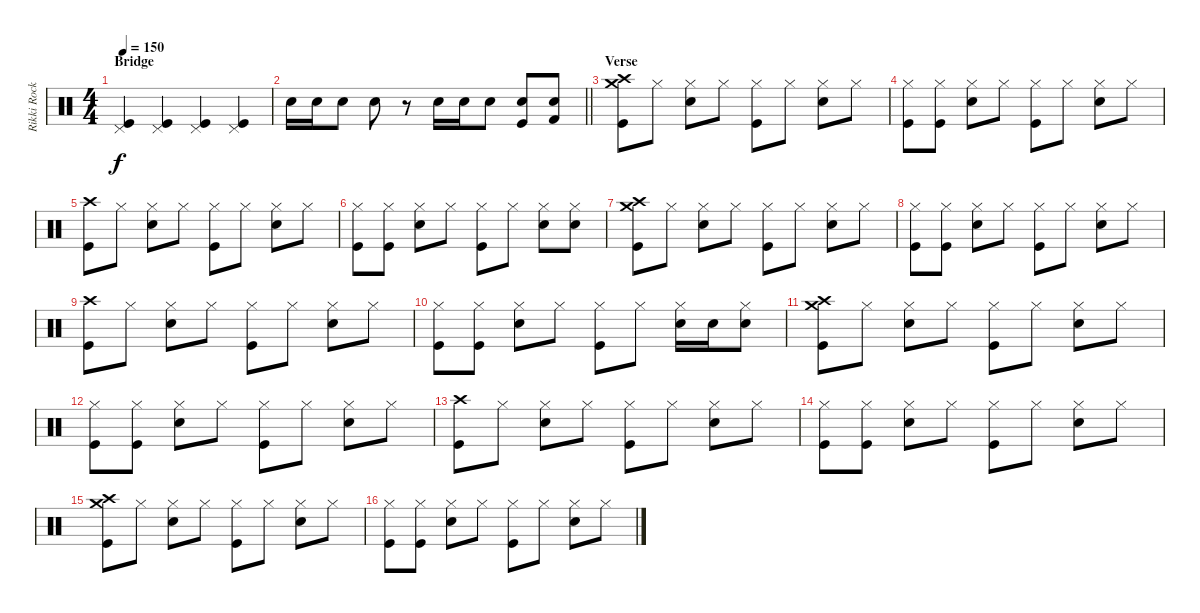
\track ("Rikki Rocket" "Rikki Rock") {instrument percussion}
\staff {score}
\articulation defaults
\ts (4 4)
\section ("" "Bridge")
\tempo 150
\clef neutral
\ks c
("Pedal Hi-Hat (hit)" "Kick (hit)").4{dy f} ("Pedal Hi-Hat (hit)" "Kick (hit)").4 ("Pedal Hi-Hat (hit)" "Kick (hit)").4 ("Pedal Hi-Hat (hit)" "Kick (hit)").4 |
\barLineRight lightlight "Electric Snare (hit)".16 "Electric Snare (hit)".16 "Electric Snare (hit)".8 "Electric Snare (hit)".8
r.8 "Electric Snare (hit)".16 "Electric Snare (hit)".16 "Electric Snare (hit)".8 ("Electric Snare (hit)" "Kick (hit)").8 ("Electric Snare (hit)" "Kick (hit) 2").8 |
\section ("" "Verse")
("Crash medium (hit)" "Crash high (hit)" "Kick (hit)").8 "Hi-Hat (closed)".8 ("Hi-Hat (closed)" "Electric Snare (hit)").8 "Hi-Hat (closed)".8 ("Hi-Hat (closed)" "Kick (hit)").8 "Hi-Hat (closed)".8 ("Hi-Hat (closed)" "Electric Snare (hit)").8 "Hi-Hat (closed)".8 |
("Hi-Hat (closed)" "Kick (hit)").8 ("Hi-Hat (closed)" "Kick (hit)").8 ("Hi-Hat (closed)" "Electric Snare (hit)").8 "Hi-Hat (closed)".8 ("Hi-Hat (closed)" "Kick (hit)").8 "Hi-Hat (closed)".8 ("Hi-Hat (closed)" "Electric Snare (hit)").8 "Hi-Hat (closed)".8 |
("Crash high (hit)" "Kick (hit)").8 "Hi-Hat (closed)".8 ("Hi-Hat (closed)" "Electric Snare (hit)").8 "Hi-Hat (closed)".8 ("Hi-Hat (closed)" "Kick (hit)").8 "Hi-Hat (closed)".8 ("Hi-Hat (closed)" "Electric Snare (hit)").8 "Hi-Hat (closed)".8 |
("Hi-Hat (closed)" "Kick (hit)").8 ("Hi-Hat (closed)" "Kick (hit)").8 ("Hi-Hat (closed)" "Electric Snare (hit)").8 "Hi-Hat (closed)".8 ("Hi-Hat (closed)" "Kick (hit)").8 "Hi-Hat (closed)".8 ("Hi-Hat (closed)" "Electric Snare (hit)").8 ("Hi-Hat (closed)" "Electric Snare (hit)").8 |
("Crash medium (hit)" "Crash high (hit)" "Kick (hit)").8 "Hi-Hat (closed)".8 ("Hi-Hat (closed)" "Electric Snare (hit)").8 "Hi-Hat (closed)".8 ("Hi-Hat (closed)" "Kick (hit)").8 "Hi-Hat (closed)".8 ("Hi-Hat (closed)" "Electric Snare (hit)").8 "Hi-Hat (closed)".8 |
("Hi-Hat (closed)" "Kick (hit)").8 ("Hi-Hat (closed)" "Kick (hit)").8 ("Hi-Hat (closed)" "Electric Snare (hit)").8 "Hi-Hat (closed)".8 ("Hi-Hat (closed)" "Kick (hit)").8 "Hi-Hat (closed)".8 ("Hi-Hat (closed)" "Electric Snare (hit)").8 "Hi-Hat (closed)".8 |
("Crash high (hit)" "Kick (hit)").8 "Hi-Hat (closed)".8 ("Hi-Hat (closed)" "Electric Snare (hit)").8 "Hi-Hat (closed)".8 ("Hi-Hat (closed)" "Kick (hit)").8 "Hi-Hat (closed)".8 ("Hi-Hat (closed)" "Electric Snare (hit)").8 "Hi-Hat (closed)".8 |
("Hi-Hat (closed)" "Kick (hit)").8 ("Hi-Hat (closed)" "Kick (hit)").8 ("Hi-Hat (closed)" "Electric Snare (hit)").8 "Hi-Hat (closed)".8 ("Hi-Hat (closed)" "Kick (hit)").8 "Hi-Hat (closed)".8 ("Hi-Hat (closed)" "Electric Snare (hit)").16 "Electric Snare (hit)".16 ("Hi-Hat (closed)" "Electric Snare (hit)").8 |
("Crash medium (hit)" "Crash high (hit)" "Kick (hit)").8 "Hi-Hat (closed)".8 ("Hi-Hat (closed)" "Electric Snare (hit)").8 "Hi-Hat (closed)".8 ("Hi-Hat (closed)" "Kick (hit)").8 "Hi-Hat (closed)".8 ("Hi-Hat (closed)" "Electric Snare (hit)").8 "Hi-Hat (closed)".8 |
("Hi-Hat (closed)" "Kick (hit)").8 ("Hi-Hat (closed)" "Kick (hit)").8 ("Hi-Hat (closed)" "Electric Snare (hit)").8 "Hi-Hat (closed)".8 ("Hi-Hat (closed)" "Kick (hit)").8 "Hi-Hat (closed)".8 ("Hi-Hat (closed)" "Electric Snare (hit)").8 "Hi-Hat (closed)".8 |
("Crash high (hit)" "Kick (hit)").8 "Hi-Hat (closed)".8 ("Hi-Hat (closed)" "Electric Snare (hit)").8 "Hi-Hat (closed)".8 ("Hi-Hat (closed)" "Kick (hit)").8 "Hi-Hat (closed)".8 ("Hi-Hat (closed)" "Electric Snare (hit)").8 "Hi-Hat (closed)".8 |
("Hi-Hat (closed)" "Kick (hit)").8 ("Hi-Hat (closed)" "Kick (hit)").8 ("Hi-Hat (closed)" "Electric Snare (hit)").8 "Hi-Hat (closed)".8 ("Hi-Hat (closed)" "Kick (hit)").8 "Hi-Hat (closed)".8 ("Hi-Hat (closed)" "Electric Snare (hit)").8 "Hi-Hat (closed)".8 |
("Crash medium (hit)" "Crash high (hit)" "Kick (hit)").8 "Hi-Hat (closed)".8 ("Hi-Hat (closed)" "Electric Snare (hit)").8 "Hi-Hat (closed)".8 ("Hi-Hat (closed)" "Kick (hit)").8 "Hi-Hat (closed)".8 ("Hi-Hat (closed)" "Electric Snare (hit)").8 "Hi-Hat (closed)".8 |
("Hi-Hat (closed)" "Kick (hit)").8 ("Hi-Hat (closed)" "Kick (hit)").8 ("Hi-Hat (closed)" "Electric Snare (hit)").8 "Hi-Hat (closed)".8 ("Hi-Hat (closed)" "Kick (hit)").8 "Hi-Hat (closed)".8 ("Hi-Hat (closed)" "Electric Snare (hit)").8 "Hi-Hat (closed)".8
